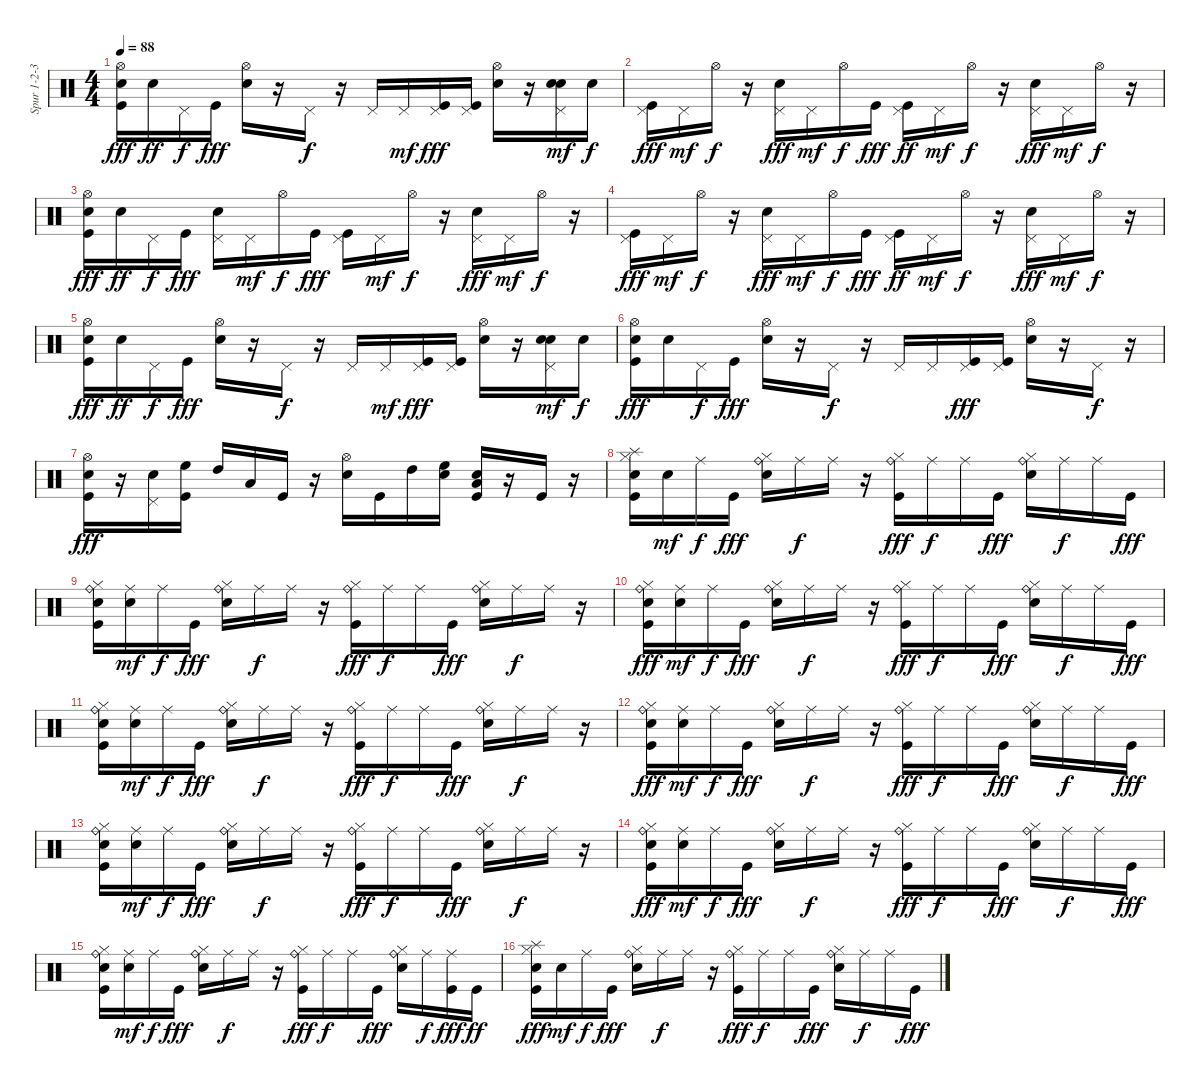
\track ("Spur 1-2-3-4" "Spur 1-2-3") {instrument percussion}
\staff {score}
\articulation defaults
\ts (4 4)
\tempo 88
\clef neutral
\ks c
("Hi-Hat (open)" "Snare (hit) 2" "Kick (hit)").16{dy fff} "Snare (hit) 2".16{dy ff} "Pedal Hi-Hat (hit)".16{dy f} "Kick (hit)".16{dy fff} ("Hi-Hat (open)" "Snare (hit) 2").16 r.16 "Pedal Hi-Hat (hit)".16{dy f} r.16 "Pedal Hi-Hat (hit)".16 "Pedal Hi-Hat (hit)".16{dy mf} ("Pedal Hi-Hat (hit)" "Kick (hit)").16{dy fff} ("Pedal Hi-Hat (hit)" "Kick (hit)").16 ("Hi-Hat (open)" "Snare (hit) 2").16 r.16 ("Pedal Hi-Hat (hit)" "Snare (hit) 2" "Snare (hit) 2").16{dy mf} "Snare (hit) 2".16{dy f} |
("Pedal Hi-Hat (hit)" "Kick (hit)").16{dy fff} "Pedal Hi-Hat (hit)".16{dy mf} "Hi-Hat (open)".16{dy f} r.16 ("Pedal Hi-Hat (hit)" "Snare (hit) 2").16{dy fff} "Pedal Hi-Hat (hit)".16{dy mf} "Hi-Hat (open)".16{dy f} "Kick (hit)".16{dy fff} ("Pedal Hi-Hat (hit)" "Kick (hit)").16{dy ff} "Pedal Hi-Hat (hit)".16{dy mf} "Hi-Hat (open)".16{dy f} r.16 ("Pedal Hi-Hat (hit)" "Snare (hit) 2").16{dy fff} "Pedal Hi-Hat (hit)".16{dy mf} "Hi-Hat (open)".16{dy f} r.16 |
("Hi-Hat (open)" "Snare (hit) 2" "Kick (hit)").16{dy fff} "Snare (hit) 2".16{dy ff} "Pedal Hi-Hat (hit)".16{dy f} "Kick (hit)".16{dy fff} ("Pedal Hi-Hat (hit)" "Snare (hit) 2").16 "Pedal Hi-Hat (hit)".16{dy mf} "Hi-Hat (open)".16{dy f} "Kick (hit)".16{dy fff} ("Pedal Hi-Hat (hit)" "Kick (hit)").16 "Pedal Hi-Hat (hit)".16{dy mf} "Hi-Hat (open)".16{dy f} r.16 ("Pedal Hi-Hat (hit)" "Snare (hit) 2").16{dy fff} "Pedal Hi-Hat (hit)".16{dy mf} "Hi-Hat (open)".16{dy f} r.16 |
("Pedal Hi-Hat (hit)" "Kick (hit)").16{dy fff} "Pedal Hi-Hat (hit)".16{dy mf} "Hi-Hat (open)".16{dy f} r.16 ("Pedal Hi-Hat (hit)" "Snare (hit) 2").16{dy fff} "Pedal Hi-Hat (hit)".16{dy mf} "Hi-Hat (open)".16{dy f} "Kick (hit)".16{dy fff} ("Pedal Hi-Hat (hit)" "Kick (hit)").16{dy ff} "Pedal Hi-Hat (hit)".16{dy mf} "Hi-Hat (open)".16{dy f} r.16 ("Pedal Hi-Hat (hit)" "Snare (hit) 2").16{dy fff} "Pedal Hi-Hat (hit)".16{dy mf} "Hi-Hat (open)".16{dy f} r.16 |
("Hi-Hat (open)" "Snare (hit) 2" "Kick (hit)").16{dy fff} "Snare (hit) 2".16{dy ff} "Pedal Hi-Hat (hit)".16{dy f} "Kick (hit)".16{dy fff} ("Hi-Hat (open)" "Snare (hit) 2").16 r.16 "Pedal Hi-Hat (hit)".16{dy f} r.16 "Pedal Hi-Hat (hit)".16 "Pedal Hi-Hat (hit)".16{dy mf} ("Pedal Hi-Hat (hit)" "Kick (hit)").16{dy fff} ("Pedal Hi-Hat (hit)" "Kick (hit)").16 ("Hi-Hat (open)" "Snare (hit) 2").16 r.16 ("Pedal Hi-Hat (hit)" "Snare (hit) 2" "Snare (hit) 2").16{dy mf} "Snare (hit) 2".16{dy f} |
("Hi-Hat (open)" "Snare (hit) 2" "Kick (hit)").16{dy fff} "Snare (hit) 2".16 "Pedal Hi-Hat (hit)".16{dy f} "Kick (hit)".16{dy fff} ("Hi-Hat (open)" "Snare (hit) 2").16 r.16 "Pedal Hi-Hat (hit)".16{dy f} r.16 "Pedal Hi-Hat (hit)".16 "Pedal Hi-Hat (hit)".16 ("Pedal Hi-Hat (hit)" "Kick (hit)").16{dy fff} ("Pedal Hi-Hat (hit)" "Kick (hit)").16 ("Hi-Hat (open)" "Snare (hit) 2").16 r.16 "Pedal Hi-Hat (hit)".16{dy f} r.16 |
("Hi-Hat (open)" "Snare (hit) 2" "Kick (hit)").16{dy fff} r.16 ("Pedal Hi-Hat (hit)" "Snare (hit) 2").16 ("Kick (hit)" "High Floor Tom (hit)").16 "High Tom (hit)".16 "Low Tom (hit)".16 "Kick (hit)".16 r.16 ("Hi-Hat (open)" "Snare (hit) 2").16 "Kick (hit)".16 "High Tom (hit)".16 ("High Floor Tom (hit)" "Snare (hit) 2").16 ("Snare (hit) 2" "Kick (hit)" "Low Tom (hit)").16 r.16 "Kick (hit)".16 r.16 |
("Hi-Hat (closed)" "Snare (hit) 2" "Kick (hit)" "Splash (hit)").16 "Snare (hit) 2".16{dy mf} "Ride (middle)".16{dy f} "Kick (hit)".16{dy fff} ("Hi-Hat (closed)" "Snare (hit) 2" "Ride (bell)").16 "Ride (middle)".16{dy f} "Ride (middle)".16 r.16 ("Hi-Hat (closed)" "Kick (hit)" "Ride (bell)").16{dy fff} "Ride (middle)".16{dy f} "Ride (middle)".16 "Kick (hit)".16{dy fff} ("Hi-Hat (closed)" "Snare (hit) 2" "Ride (bell)").16 "Ride (middle)".16{dy f} "Ride (middle)".16 "Kick (hit)".16{dy fff} |
("Hi-Hat (closed)" "Snare (hit) 2" "Kick (hit)" "Ride (bell)").16 ("Snare (hit) 2" "Ride (middle)").16{dy mf} "Ride (middle)".16{dy f} "Kick (hit)".16{dy fff} ("Hi-Hat (closed)" "Snare (hit) 2" "Ride (bell)").16 "Ride (middle)".16{dy f} "Ride (middle)".16 r.16 ("Hi-Hat (closed)" "Kick (hit)" "Ride (bell)").16{dy fff} "Ride (middle)".16{dy f} "Ride (middle)".16 "Kick (hit)".16{dy fff} ("Hi-Hat (closed)" "Snare (hit) 2" "Ride (bell)").16 "Ride (middle)".16{dy f} "Ride (middle)".16 r.16 |
("Hi-Hat (closed)" "Snare (hit) 2" "Kick (hit)" "Ride (bell)").16{dy fff} ("Snare (hit) 2" "Ride (middle)").16{dy mf} "Ride (middle)".16{dy f} "Kick (hit)".16{dy fff} ("Hi-Hat (closed)" "Snare (hit) 2" "Ride (bell)").16 "Ride (middle)".16{dy f} "Ride (middle)".16 r.16 ("Hi-Hat (closed)" "Kick (hit)" "Ride (bell)").16{dy fff} "Ride (middle)".16{dy f} "Ride (middle)".16 "Kick (hit)".16{dy fff} ("Hi-Hat (closed)" "Snare (hit) 2" "Ride (bell)").16 "Ride (middle)".16{dy f} "Ride (middle)".16 "Kick (hit)".16{dy fff} |
("Hi-Hat (closed)" "Snare (hit) 2" "Kick (hit)" "Ride (bell)").16 ("Snare (hit) 2" "Ride (middle)").16{dy mf} "Ride (middle)".16{dy f} "Kick (hit)".16{dy fff} ("Hi-Hat (closed)" "Snare (hit) 2" "Ride (bell)").16 "Ride (middle)".16{dy f} "Ride (middle)".16 r.16 ("Hi-Hat (closed)" "Kick (hit)" "Ride (bell)").16{dy fff} "Ride (middle)".16{dy f} "Ride (middle)".16 "Kick (hit)".16{dy fff} ("Hi-Hat (closed)" "Snare (hit) 2" "Ride (bell)").16 "Ride (middle)".16{dy f} "Ride (middle)".16 r.16 |
("Hi-Hat (closed)" "Snare (hit) 2" "Kick (hit)" "Ride (bell)").16{dy fff} ("Snare (hit) 2" "Ride (middle)").16{dy mf} "Ride (middle)".16{dy f} "Kick (hit)".16{dy fff} ("Hi-Hat (closed)" "Snare (hit) 2" "Ride (bell)").16 "Ride (middle)".16{dy f} "Ride (middle)".16 r.16 ("Hi-Hat (closed)" "Kick (hit)" "Ride (bell)").16{dy fff} "Ride (middle)".16{dy f} "Ride (middle)".16 "Kick (hit)".16{dy fff} ("Hi-Hat (closed)" "Snare (hit) 2" "Ride (bell)").16 "Ride (middle)".16{dy f} "Ride (middle)".16 "Kick (hit)".16{dy fff} |
("Hi-Hat (closed)" "Snare (hit) 2" "Kick (hit)" "Ride (bell)").16 ("Snare (hit) 2" "Ride (middle)").16{dy mf} "Ride (middle)".16{dy f} "Kick (hit)".16{dy fff} ("Hi-Hat (closed)" "Snare (hit) 2" "Ride (bell)").16 "Ride (middle)".16{dy f} "Ride (middle)".16 r.16 ("Hi-Hat (closed)" "Kick (hit)" "Ride (bell)").16{dy fff} "Ride (middle)".16{dy f} "Ride (middle)".16 "Kick (hit)".16{dy fff} ("Hi-Hat (closed)" "Snare (hit) 2" "Ride (bell)").16 "Ride (middle)".16{dy f} "Ride (middle)".16 r.16 |
("Hi-Hat (closed)" "Snare (hit) 2" "Kick (hit)" "Ride (bell)").16{dy fff} ("Snare (hit) 2" "Ride (middle)").16{dy mf} "Ride (middle)".16{dy f} "Kick (hit)".16{dy fff} ("Hi-Hat (closed)" "Snare (hit) 2" "Ride (bell)").16 "Ride (middle)".16{dy f} "Ride (middle)".16 r.16 ("Hi-Hat (closed)" "Kick (hit)" "Ride (bell)").16{dy fff} "Ride (middle)".16{dy f} "Ride (middle)".16 "Kick (hit)".16{dy fff} ("Hi-Hat (closed)" "Snare (hit) 2" "Ride (bell)").16 "Ride (middle)".16{dy f} "Ride (middle)".16 "Kick (hit)".16{dy fff} |
("Hi-Hat (closed)" "Snare (hit) 2" "Kick (hit)" "Ride (bell)").16 ("Snare (hit) 2" "Ride (middle)").16{dy mf} "Ride (middle)".16{dy f} "Kick (hit)".16{dy fff} ("Hi-Hat (closed)" "Snare (hit) 2" "Ride (bell)").16 "Ride (middle)".16{dy f} "Ride (middle)".16 r.16 ("Hi-Hat (closed)" "Kick (hit)" "Ride (bell)").16{dy fff} "Ride (middle)".16{dy f} "Ride (middle)".16 "Kick (hit)".16{dy fff} ("Hi-Hat (closed)" "Snare (hit) 2" "Ride (bell)").16 "Ride (middle)".16{dy f} ("Kick (hit)" "Ride (middle)").16{dy fff} "Kick (hit)".16{dy ff} |
("Hi-Hat (closed)" "Snare (hit) 2" "Kick (hit)" "Splash (hit)").16{dy fff} "Snare (hit) 2".16{dy mf} "Ride (middle)".16{dy f} "Kick (hit)".16{dy fff} ("Hi-Hat (closed)" "Snare (hit) 2" "Ride (bell)").16 "Ride (middle)".16{dy f} "Ride (middle)".16 r.16 ("Hi-Hat (closed)" "Kick (hit)" "Ride (bell)").16{dy fff} "Ride (middle)".16{dy f} "Ride (middle)".16 "Kick (hit)".16{dy fff} ("Hi-Hat (closed)" "Snare (hit) 2" "Ride (bell)").16 "Ride (middle)".16{dy f} "Ride (middle)".16 "Kick (hit)".16{dy fff}
